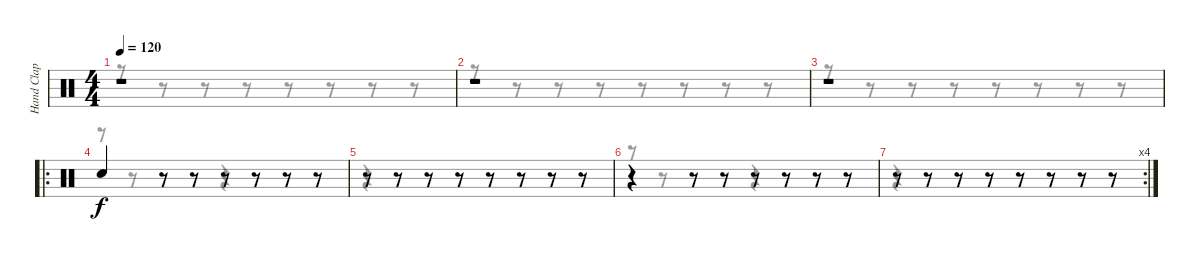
\track ("Hand Clap" "Hand Clap") {instrument percussion}
\staff {score}
\articulation defaults
\voice
\ts (4 4)
\tempo 120
\clef neutral
\ks c
r.1{dy f} |
r.1 |
r.1 |
\ro "Hand Clap (hit)".4
r.8 r.8 r.8 r.8 r.8 r.8 |
r.8 r.8 r.8 r.8 r.8 r.8 r.8 r.8 |
r.4 r.8 r.8 r.8 r.8 r.8 r.8 |
\rc 4
r.8 r.8 r.8 r.8 r.8 r.8 r.8 r.8
\voice
\clef neutral
\ottava regular
\simile none
\ks c
r.8{dy f} r.8 r.8 r.8 r.8 r.8 r.8 r.8 |
r.8 r.8 r.8 r.8 r.8 r.8 r.8 r.8 |
r.8 r.8 r.8 r.8 r.8 r.8 r.8 r.8 |
r.8 r.8 r.8 r.8 r.4 r.8 r.8 |
r.4 r.8 r.8 r.8 r.8 r.8 r.8 |
r.8 r.8 r.8 r.8 r.4 r.8 r.8 |
r.4 r.8 r.8 r.8 r.8 r.8 r.8
